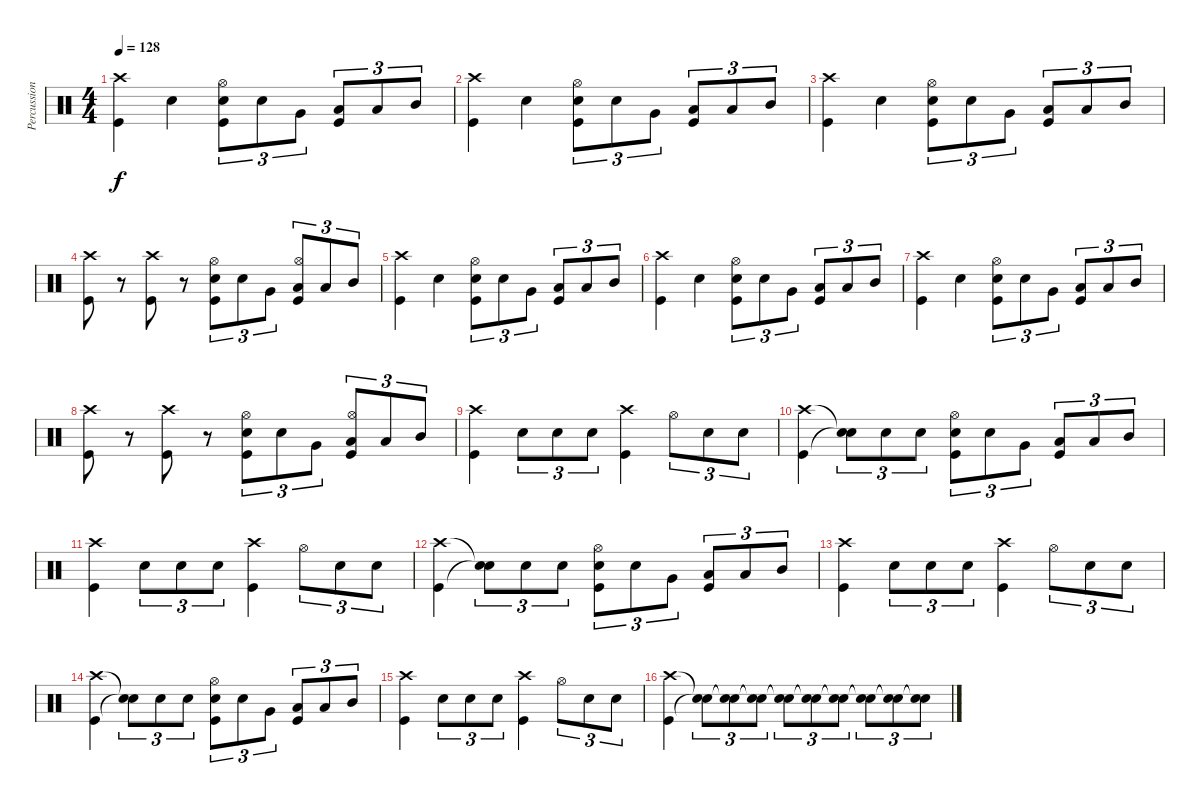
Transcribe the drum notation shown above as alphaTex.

\track ("Percussion" "Percussion") {instrument percussion}
\staff {score}
\articulation defaults
\ts (4 4)
\tempo 128
\clef neutral
\ks c
("Kick (hit)" "Crash high (hit)").4{dy f} "Snare (hit) 2".4 ("Kick (hit)" "Snare (hit) 2" "Hi-Hat (open)").8{tu (3 2)} "Snare (hit) 2".8{tu (3 2)} "Very Low Tom (hit)".8{tu (3 2)} ("Kick (hit)" "Low Tom (hit)").8{tu (3 2)} "Low Tom (hit)".8{tu (3 2)} "Mid Tom (hit)".8{tu (3 2)} |
("Kick (hit)" "Crash high (hit)").4 "Snare (hit) 2".4 ("Kick (hit)" "Snare (hit) 2" "Hi-Hat (open)").8{tu (3 2)} "Snare (hit) 2".8{tu (3 2)} "Very Low Tom (hit)".8{tu (3 2)} ("Kick (hit)" "Low Tom (hit)").8{tu (3 2)} "Low Tom (hit)".8{tu (3 2)} "Mid Tom (hit)".8{tu (3 2)} |
("Kick (hit)" "Crash high (hit)").4 "Snare (hit) 2".4 ("Kick (hit)" "Snare (hit) 2" "Hi-Hat (open)").8{tu (3 2)} "Snare (hit) 2".8{tu (3 2)} "Very Low Tom (hit)".8{tu (3 2)} ("Kick (hit)" "Low Tom (hit)").8{tu (3 2)} "Low Tom (hit)".8{tu (3 2)} "Mid Tom (hit)".8{tu (3 2)} |
("Kick (hit)" "Crash high (hit)").8 r.8 ("Kick (hit)" "Crash high (hit)").8 r.8 ("Snare (hit) 2" "Kick (hit)" "Hi-Hat (open)").8{tu (3 2)} "Snare (hit) 2".8{tu (3 2)} "Very Low Tom (hit)".8{tu (3 2)} ("Low Tom (hit)" "Kick (hit)" "Hi-Hat (open)").8{tu (3 2)} "Low Tom (hit)".8{tu (3 2)} "Mid Tom (hit)".8{tu (3 2)} |
("Kick (hit)" "Crash high (hit)").4 "Snare (hit) 2".4 ("Kick (hit)" "Snare (hit) 2" "Hi-Hat (open)").8{tu (3 2)} "Snare (hit) 2".8{tu (3 2)} "Very Low Tom (hit)".8{tu (3 2)} ("Kick (hit)" "Low Tom (hit)").8{tu (3 2)} "Low Tom (hit)".8{tu (3 2)} "Mid Tom (hit)".8{tu (3 2)} |
("Kick (hit)" "Crash high (hit)").4 "Snare (hit) 2".4 ("Kick (hit)" "Snare (hit) 2" "Hi-Hat (open)").8{tu (3 2)} "Snare (hit) 2".8{tu (3 2)} "Very Low Tom (hit)".8{tu (3 2)} ("Kick (hit)" "Low Tom (hit)").8{tu (3 2)} "Low Tom (hit)".8{tu (3 2)} "Mid Tom (hit)".8{tu (3 2)} |
("Kick (hit)" "Crash high (hit)").4 "Snare (hit) 2".4 ("Kick (hit)" "Snare (hit) 2" "Hi-Hat (open)").8{tu (3 2)} "Snare (hit) 2".8{tu (3 2)} "Very Low Tom (hit)".8{tu (3 2)} ("Kick (hit)" "Low Tom (hit)").8{tu (3 2)} "Low Tom (hit)".8{tu (3 2)} "Mid Tom (hit)".8{tu (3 2)} |
("Kick (hit)" "Crash high (hit)").8 r.8 ("Kick (hit)" "Crash high (hit)").8 r.8 ("Snare (hit) 2" "Kick (hit)" "Hi-Hat (open)").8{tu (3 2)} "Snare (hit) 2".8{tu (3 2)} "Very Low Tom (hit)".8{tu (3 2)} ("Low Tom (hit)" "Kick (hit)" "Hi-Hat (open)").8{tu (3 2)} "Low Tom (hit)".8{tu (3 2)} "Mid Tom (hit)".8{tu (3 2)} |
("Kick (hit)" "Crash high (hit)").4 "Snare (hit) 2".8{tu (3 2)} "Snare (hit) 2".8{tu (3 2)} "Snare (hit) 2".8{tu (3 2)} ("Kick (hit)" "Crash high (hit)").4 "Hi-Hat (open)".8{tu (3 2)} "Snare (hit) 2".8{tu (3 2)} "Snare (hit) 2".8{tu (3 2)} |
("Kick (hit)" "Crash high (hit)").4 ("Snare (hit)"{t} "Snare (hit)"{t}).8{tu (3 2)} "Snare (hit) 2".8{tu (3 2)} "Snare (hit) 2".8{tu (3 2)} ("Kick (hit)" "Snare (hit) 2" "Hi-Hat (open)").8{tu (3 2)} "Snare (hit) 2".8{tu (3 2)} "Very Low Tom (hit)".8{tu (3 2)} ("Kick (hit)" "Low Tom (hit)").8{tu (3 2)} "Low Tom (hit)".8{tu (3 2)} "Mid Tom (hit)".8{tu (3 2)} |
("Kick (hit)" "Crash high (hit)").4 "Snare (hit) 2".8{tu (3 2)} "Snare (hit) 2".8{tu (3 2)} "Snare (hit) 2".8{tu (3 2)} ("Kick (hit)" "Crash high (hit)").4 "Hi-Hat (open)".8{tu (3 2)} "Snare (hit) 2".8{tu (3 2)} "Snare (hit) 2".8{tu (3 2)} |
("Kick (hit)" "Crash high (hit)").4 ("Snare (hit)"{t} "Snare (hit)"{t}).8{tu (3 2)} "Snare (hit) 2".8{tu (3 2)} "Snare (hit) 2".8{tu (3 2)} ("Kick (hit)" "Snare (hit) 2" "Hi-Hat (open)").8{tu (3 2)} "Snare (hit) 2".8{tu (3 2)} "Very Low Tom (hit)".8{tu (3 2)} ("Kick (hit)" "Low Tom (hit)").8{tu (3 2)} "Low Tom (hit)".8{tu (3 2)} "Mid Tom (hit)".8{tu (3 2)} |
("Kick (hit)" "Crash high (hit)").4 "Snare (hit) 2".8{tu (3 2)} "Snare (hit) 2".8{tu (3 2)} "Snare (hit) 2".8{tu (3 2)} ("Kick (hit)" "Crash high (hit)").4 "Hi-Hat (open)".8{tu (3 2)} "Snare (hit) 2".8{tu (3 2)} "Snare (hit) 2".8{tu (3 2)} |
("Kick (hit)" "Crash high (hit)").4 ("Snare (hit)"{t} "Snare (hit)"{t}).8{tu (3 2)} "Snare (hit) 2".8{tu (3 2)} "Snare (hit) 2".8{tu (3 2)} ("Kick (hit)" "Snare (hit) 2" "Hi-Hat (open)").8{tu (3 2)} "Snare (hit) 2".8{tu (3 2)} "Very Low Tom (hit)".8{tu (3 2)} ("Kick (hit)" "Low Tom (hit)").8{tu (3 2)} "Low Tom (hit)".8{tu (3 2)} "Mid Tom (hit)".8{tu (3 2)} |
("Kick (hit)" "Crash high (hit)").4 "Snare (hit) 2".8{tu (3 2)} "Snare (hit) 2".8{tu (3 2)} "Snare (hit) 2".8{tu (3 2)} ("Kick (hit)" "Crash high (hit)").4 "Hi-Hat (open)".8{tu (3 2)} "Snare (hit) 2".8{tu (3 2)} "Snare (hit) 2".8{tu (3 2)} |
("Kick (hit)" "Crash high (hit)").4 ("Snare (hit)"{t} "Snare (hit)"{t}).8{tu (3 2)} ("Snare (hit)"{t} "Snare (hit)"{t}).8{tu (3 2)} ("Snare (hit)"{t} "Snare (hit)"{t}).8{tu (3 2)} ("Snare (hit)"{t} "Snare (hit)"{t}).8{tu (3 2)} ("Snare (hit)"{t} "Snare (hit)"{t}).8{tu (3 2)} ("Snare (hit)"{t} "Snare (hit)"{t}).8{tu (3 2)} ("Snare (hit)"{t} "Snare (hit)"{t}).8{tu (3 2)} ("Snare (hit)"{t} "Snare (hit)"{t}).8{tu (3 2)} ("Snare (hit)"{t} "Snare (hit)"{t}).8{tu (3 2)}
